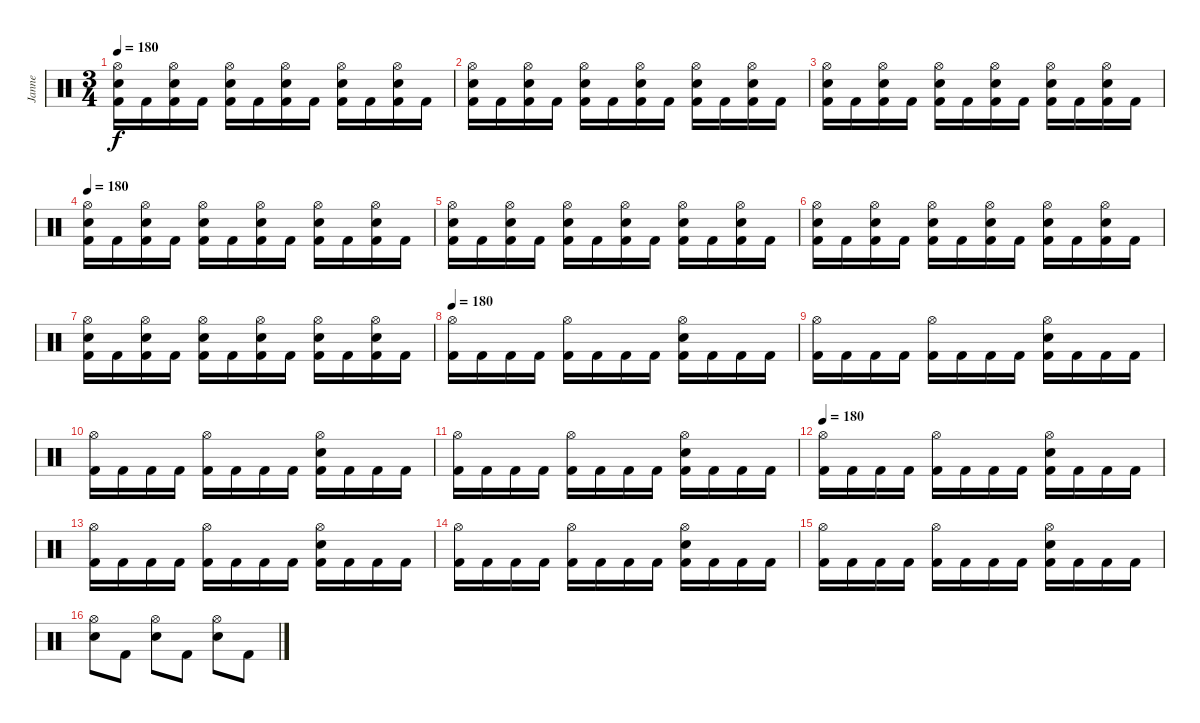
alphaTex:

\track ("Janne" "Janne") {instrument percussion}
\staff {score}
\articulation defaults
\ts (3 4)
\tempo 180
\clef neutral
\ks c
("Hi-Hat (open)" "Electric Snare (hit)" "Kick (hit) 2").16{dy f} "Kick (hit) 2".16 ("Hi-Hat (open)" "Electric Snare (hit)" "Kick (hit) 2").16 "Kick (hit) 2".16 ("Hi-Hat (open)" "Electric Snare (hit)" "Kick (hit) 2").16 "Kick (hit) 2".16 ("Hi-Hat (open)" "Electric Snare (hit)" "Kick (hit) 2").16 "Kick (hit) 2".16 ("Hi-Hat (open)" "Electric Snare (hit)" "Kick (hit) 2").16 "Kick (hit) 2".16 ("Hi-Hat (open)" "Electric Snare (hit)" "Kick (hit) 2").16 "Kick (hit) 2".16 |
("Hi-Hat (open)" "Electric Snare (hit)" "Kick (hit) 2").16 "Kick (hit) 2".16 ("Hi-Hat (open)" "Electric Snare (hit)" "Kick (hit) 2").16 "Kick (hit) 2".16 ("Hi-Hat (open)" "Electric Snare (hit)" "Kick (hit) 2").16 "Kick (hit) 2".16 ("Hi-Hat (open)" "Electric Snare (hit)" "Kick (hit) 2").16 "Kick (hit) 2".16 ("Hi-Hat (open)" "Electric Snare (hit)" "Kick (hit) 2").16 "Kick (hit) 2".16 ("Hi-Hat (open)" "Electric Snare (hit)" "Kick (hit) 2").16 "Kick (hit) 2".16 |
("Hi-Hat (open)" "Electric Snare (hit)" "Kick (hit) 2").16 "Kick (hit) 2".16 ("Hi-Hat (open)" "Electric Snare (hit)" "Kick (hit) 2").16 "Kick (hit) 2".16 ("Hi-Hat (open)" "Electric Snare (hit)" "Kick (hit) 2").16 "Kick (hit) 2".16 ("Hi-Hat (open)" "Electric Snare (hit)" "Kick (hit) 2").16 "Kick (hit) 2".16 ("Hi-Hat (open)" "Electric Snare (hit)" "Kick (hit) 2").16 "Kick (hit) 2".16 ("Hi-Hat (open)" "Electric Snare (hit)" "Kick (hit) 2").16 "Kick (hit) 2".16 |
\tempo 180
("Hi-Hat (open)" "Electric Snare (hit)" "Kick (hit) 2").16 "Kick (hit) 2".16 ("Hi-Hat (open)" "Electric Snare (hit)" "Kick (hit) 2").16 "Kick (hit) 2".16 ("Hi-Hat (open)" "Electric Snare (hit)" "Kick (hit) 2").16 "Kick (hit) 2".16 ("Hi-Hat (open)" "Electric Snare (hit)" "Kick (hit) 2").16 "Kick (hit) 2".16 ("Hi-Hat (open)" "Electric Snare (hit)" "Kick (hit) 2").16 "Kick (hit) 2".16 ("Hi-Hat (open)" "Electric Snare (hit)" "Kick (hit) 2").16 "Kick (hit) 2".16 |
("Hi-Hat (open)" "Electric Snare (hit)" "Kick (hit) 2").16 "Kick (hit) 2".16 ("Hi-Hat (open)" "Electric Snare (hit)" "Kick (hit) 2").16 "Kick (hit) 2".16 ("Hi-Hat (open)" "Electric Snare (hit)" "Kick (hit) 2").16 "Kick (hit) 2".16 ("Hi-Hat (open)" "Electric Snare (hit)" "Kick (hit) 2").16 "Kick (hit) 2".16 ("Hi-Hat (open)" "Electric Snare (hit)" "Kick (hit) 2").16 "Kick (hit) 2".16 ("Hi-Hat (open)" "Electric Snare (hit)" "Kick (hit) 2").16 "Kick (hit) 2".16 |
("Hi-Hat (open)" "Electric Snare (hit)" "Kick (hit) 2").16 "Kick (hit) 2".16 ("Hi-Hat (open)" "Electric Snare (hit)" "Kick (hit) 2").16 "Kick (hit) 2".16 ("Hi-Hat (open)" "Electric Snare (hit)" "Kick (hit) 2").16 "Kick (hit) 2".16 ("Hi-Hat (open)" "Electric Snare (hit)" "Kick (hit) 2").16 "Kick (hit) 2".16 ("Hi-Hat (open)" "Electric Snare (hit)" "Kick (hit) 2").16 "Kick (hit) 2".16 ("Hi-Hat (open)" "Electric Snare (hit)" "Kick (hit) 2").16 "Kick (hit) 2".16 |
("Hi-Hat (open)" "Electric Snare (hit)" "Kick (hit) 2").16 "Kick (hit) 2".16 ("Hi-Hat (open)" "Electric Snare (hit)" "Kick (hit) 2").16 "Kick (hit) 2".16 ("Hi-Hat (open)" "Electric Snare (hit)" "Kick (hit) 2").16 "Kick (hit) 2".16 ("Hi-Hat (open)" "Electric Snare (hit)" "Kick (hit) 2").16 "Kick (hit) 2".16 ("Hi-Hat (open)" "Electric Snare (hit)" "Kick (hit) 2").16 "Kick (hit) 2".16 ("Hi-Hat (open)" "Electric Snare (hit)" "Kick (hit) 2").16 "Kick (hit) 2".16 |
\tempo 180
("Hi-Hat (open)" "Kick (hit) 2").16 "Kick (hit) 2".16 "Kick (hit) 2".16 "Kick (hit) 2".16 ("Hi-Hat (open)" "Kick (hit) 2").16 "Kick (hit) 2".16 "Kick (hit) 2".16 "Kick (hit) 2".16 ("Hi-Hat (open)" "Electric Snare (hit)" "Kick (hit) 2").16 "Kick (hit) 2".16 "Kick (hit) 2".16 "Kick (hit) 2".16 |
("Hi-Hat (open)" "Kick (hit) 2").16 "Kick (hit) 2".16 "Kick (hit) 2".16 "Kick (hit) 2".16 ("Hi-Hat (open)" "Kick (hit) 2").16 "Kick (hit) 2".16 "Kick (hit) 2".16 "Kick (hit) 2".16 ("Hi-Hat (open)" "Electric Snare (hit)" "Kick (hit) 2").16 "Kick (hit) 2".16 "Kick (hit) 2".16 "Kick (hit) 2".16 |
("Hi-Hat (open)" "Kick (hit) 2").16 "Kick (hit) 2".16 "Kick (hit) 2".16 "Kick (hit) 2".16 ("Hi-Hat (open)" "Kick (hit) 2").16 "Kick (hit) 2".16 "Kick (hit) 2".16 "Kick (hit) 2".16 ("Hi-Hat (open)" "Electric Snare (hit)" "Kick (hit) 2").16 "Kick (hit) 2".16 "Kick (hit) 2".16 "Kick (hit) 2".16 |
("Hi-Hat (open)" "Kick (hit) 2").16 "Kick (hit) 2".16 "Kick (hit) 2".16 "Kick (hit) 2".16 ("Hi-Hat (open)" "Kick (hit) 2").16 "Kick (hit) 2".16 "Kick (hit) 2".16 "Kick (hit) 2".16 ("Hi-Hat (open)" "Electric Snare (hit)" "Kick (hit) 2").16 "Kick (hit) 2".16 "Kick (hit) 2".16 "Kick (hit) 2".16 |
\tempo 180
("Hi-Hat (open)" "Kick (hit) 2").16 "Kick (hit) 2".16 "Kick (hit) 2".16 "Kick (hit) 2".16 ("Hi-Hat (open)" "Kick (hit) 2").16 "Kick (hit) 2".16 "Kick (hit) 2".16 "Kick (hit) 2".16 ("Hi-Hat (open)" "Electric Snare (hit)" "Kick (hit) 2").16 "Kick (hit) 2".16 "Kick (hit) 2".16 "Kick (hit) 2".16 |
("Hi-Hat (open)" "Kick (hit) 2").16 "Kick (hit) 2".16 "Kick (hit) 2".16 "Kick (hit) 2".16 ("Hi-Hat (open)" "Kick (hit) 2").16 "Kick (hit) 2".16 "Kick (hit) 2".16 "Kick (hit) 2".16 ("Hi-Hat (open)" "Electric Snare (hit)" "Kick (hit) 2").16 "Kick (hit) 2".16 "Kick (hit) 2".16 "Kick (hit) 2".16 |
("Hi-Hat (open)" "Kick (hit) 2").16 "Kick (hit) 2".16 "Kick (hit) 2".16 "Kick (hit) 2".16 ("Hi-Hat (open)" "Kick (hit) 2").16 "Kick (hit) 2".16 "Kick (hit) 2".16 "Kick (hit) 2".16 ("Hi-Hat (open)" "Electric Snare (hit)" "Kick (hit) 2").16 "Kick (hit) 2".16 "Kick (hit) 2".16 "Kick (hit) 2".16 |
("Hi-Hat (open)" "Kick (hit) 2").16 "Kick (hit) 2".16 "Kick (hit) 2".16 "Kick (hit) 2".16 ("Hi-Hat (open)" "Kick (hit) 2").16 "Kick (hit) 2".16 "Kick (hit) 2".16 "Kick (hit) 2".16 ("Hi-Hat (open)" "Electric Snare (hit)" "Kick (hit) 2").16 "Kick (hit) 2".16 "Kick (hit) 2".16 "Kick (hit) 2".16 |
("Hi-Hat (open)" "Electric Snare (hit)").8 "Kick (hit) 2".8 ("Hi-Hat (open)" "Electric Snare (hit)").8 "Kick (hit) 2".8 ("Hi-Hat (open)" "Electric Snare (hit)").8 "Kick (hit) 2".8
